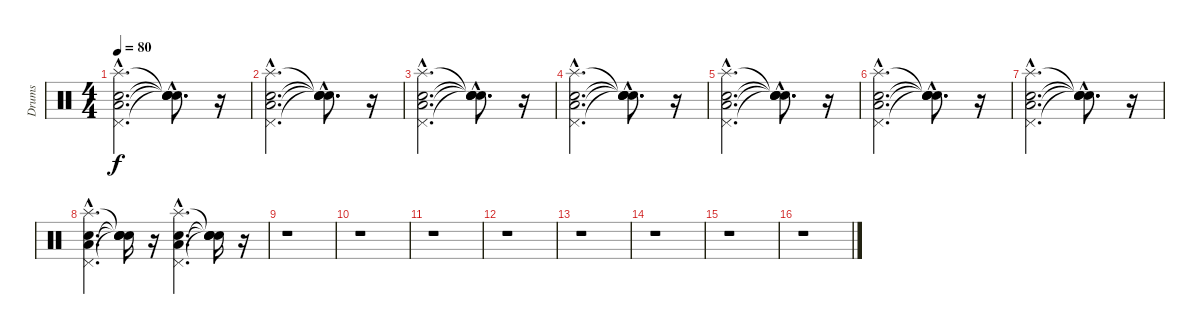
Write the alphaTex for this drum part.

\track ("Drums" "Drums") {instrument percussion}
\staff {score}
\articulation defaults
\ts (4 4)
\tempo 80
\clef neutral
\ks c
("Electric Snare (hit)"{hac} "Low Floor Tom (hit)"{hac} "Pedal Hi-Hat (hit)"{hac} "Splash (hit)"{hac}).2{d dy f} ("Snare (hit)"{hac t} "Snare (hit)"{hac t} "Snare (hit)"{hac t} "Snare (hit)"{hac t}).8{d} r.16 |
("Electric Snare (hit)"{hac} "Low Floor Tom (hit)"{hac} "Pedal Hi-Hat (hit)"{hac} "Splash (hit)"{hac}).2{d} ("Snare (hit)"{hac t} "Snare (hit)"{hac t} "Snare (hit)"{hac t} "Snare (hit)"{hac t}).8{d} r.16 |
("Electric Snare (hit)"{hac} "Low Floor Tom (hit)"{hac} "Pedal Hi-Hat (hit)"{hac} "Splash (hit)"{hac}).2{d} ("Snare (hit)"{hac t} "Snare (hit)"{hac t} "Snare (hit)"{hac t} "Snare (hit)"{hac t}).8{d} r.16 |
("Electric Snare (hit)"{hac} "Low Floor Tom (hit)"{hac} "Pedal Hi-Hat (hit)"{hac} "Splash (hit)"{hac}).2{d} ("Snare (hit)"{hac t} "Snare (hit)"{hac t} "Snare (hit)"{hac t} "Snare (hit)"{hac t}).8{d} r.16 |
("Electric Snare (hit)"{hac} "Low Floor Tom (hit)"{hac} "Pedal Hi-Hat (hit)"{hac} "Splash (hit)"{hac}).2{d} ("Snare (hit)"{hac t} "Snare (hit)"{hac t} "Snare (hit)"{hac t} "Snare (hit)"{hac t}).8{d} r.16 |
("Electric Snare (hit)"{hac} "Low Floor Tom (hit)"{hac} "Pedal Hi-Hat (hit)"{hac} "Splash (hit)"{hac}).2{d} ("Snare (hit)"{hac t} "Snare (hit)"{hac t} "Snare (hit)"{hac t} "Snare (hit)"{hac t}).8{d} r.16 |
("Electric Snare (hit)"{hac} "Low Floor Tom (hit)"{hac} "Pedal Hi-Hat (hit)"{hac} "Splash (hit)"{hac}).2{d} ("Snare (hit)"{hac t} "Snare (hit)"{hac t} "Snare (hit)"{hac t} "Snare (hit)"{hac t}).8{d} r.16 |
("Electric Snare (hit)"{hac} "Low Floor Tom (hit)"{hac} "Pedal Hi-Hat (hit)"{hac} "Splash (hit)"{hac}).4{d} ("Snare (hit)"{t} "Snare (hit)"{t} "Snare (hit)"{t} "Snare (hit)"{t}).16 r.16 ("Electric Snare (hit)"{hac} "Low Floor Tom (hit)"{hac} "Pedal Hi-Hat (hit)"{hac} "Splash (hit)"{hac}).4{d} ("Snare (hit)"{t} "Snare (hit)"{t} "Snare (hit)"{t} "Snare (hit)"{t}).16 r.16 |
r.1 |
r.1 |
r.1 |
r.1 |
r.1 |
r.1 |
r.1 |
r.1
